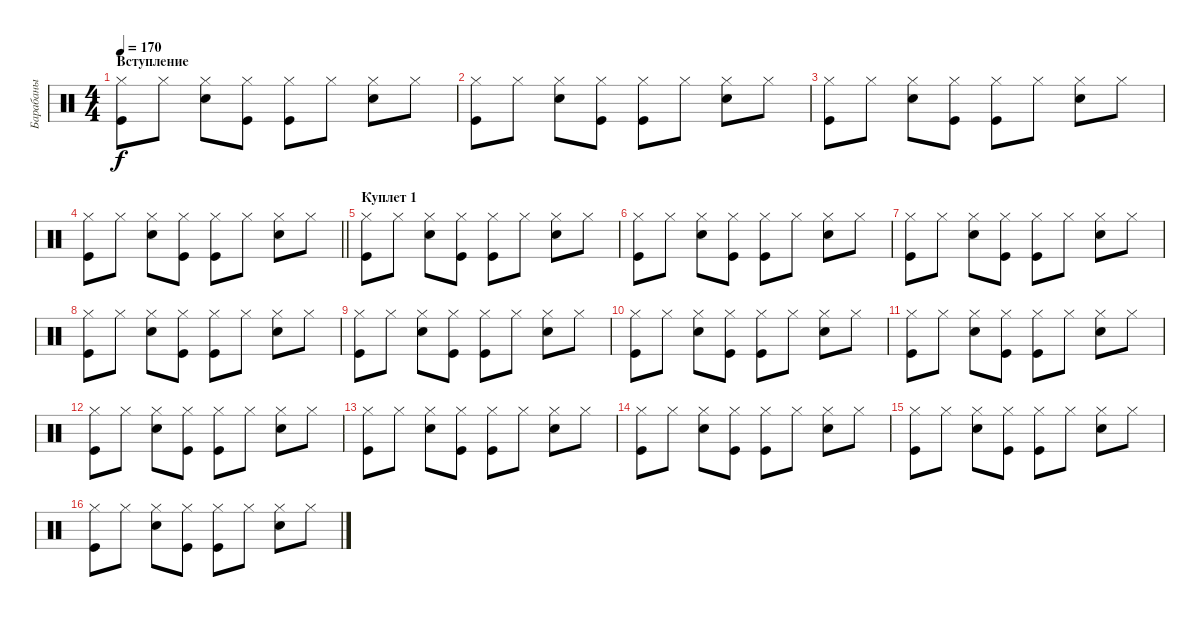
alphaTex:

\track ("Барабаны" "Барабаны") {instrument percussion}
\staff {score}
\articulation defaults
\ts (4 4)
\section ("" "Вступление")
\tempo 170
\clef neutral
\ks c
("Kick (hit)" "Hi-Hat (closed)").8{dy f} "Hi-Hat (closed)".8 ("Snare (hit) 2" "Hi-Hat (closed)").8 ("Kick (hit)" "Hi-Hat (closed)").8 ("Kick (hit)" "Hi-Hat (closed)").8 "Hi-Hat (closed)".8 ("Snare (hit) 2" "Hi-Hat (closed)").8 "Hi-Hat (closed)".8 |
("Kick (hit)" "Hi-Hat (closed)").8 "Hi-Hat (closed)".8 ("Snare (hit) 2" "Hi-Hat (closed)").8 ("Kick (hit)" "Hi-Hat (closed)").8 ("Kick (hit)" "Hi-Hat (closed)").8 "Hi-Hat (closed)".8 ("Snare (hit) 2" "Hi-Hat (closed)").8 "Hi-Hat (closed)".8 |
("Kick (hit)" "Hi-Hat (closed)").8 "Hi-Hat (closed)".8 ("Snare (hit) 2" "Hi-Hat (closed)").8 ("Kick (hit)" "Hi-Hat (closed)").8 ("Kick (hit)" "Hi-Hat (closed)").8 "Hi-Hat (closed)".8 ("Snare (hit) 2" "Hi-Hat (closed)").8 "Hi-Hat (closed)".8 |
\barLineRight lightlight
("Kick (hit)" "Hi-Hat (closed)").8 "Hi-Hat (closed)".8 ("Snare (hit) 2" "Hi-Hat (closed)").8 ("Kick (hit)" "Hi-Hat (closed)").8 ("Kick (hit)" "Hi-Hat (closed)").8 "Hi-Hat (closed)".8 ("Snare (hit) 2" "Hi-Hat (closed)").8 "Hi-Hat (closed)".8 |
\section ("" "Куплет 1")
("Kick (hit)" "Hi-Hat (closed)").8 "Hi-Hat (closed)".8 ("Snare (hit) 2" "Hi-Hat (closed)").8 ("Kick (hit)" "Hi-Hat (closed)").8 ("Kick (hit)" "Hi-Hat (closed)").8 "Hi-Hat (closed)".8 ("Snare (hit) 2" "Hi-Hat (closed)").8 "Hi-Hat (closed)".8 |
("Kick (hit)" "Hi-Hat (closed)").8 "Hi-Hat (closed)".8 ("Snare (hit) 2" "Hi-Hat (closed)").8 ("Kick (hit)" "Hi-Hat (closed)").8 ("Kick (hit)" "Hi-Hat (closed)").8 "Hi-Hat (closed)".8 ("Snare (hit) 2" "Hi-Hat (closed)").8 "Hi-Hat (closed)".8 |
("Kick (hit)" "Hi-Hat (closed)").8 "Hi-Hat (closed)".8 ("Snare (hit) 2" "Hi-Hat (closed)").8 ("Kick (hit)" "Hi-Hat (closed)").8 ("Kick (hit)" "Hi-Hat (closed)").8 "Hi-Hat (closed)".8 ("Snare (hit) 2" "Hi-Hat (closed)").8 "Hi-Hat (closed)".8 |
("Kick (hit)" "Hi-Hat (closed)").8 "Hi-Hat (closed)".8 ("Snare (hit) 2" "Hi-Hat (closed)").8 ("Kick (hit)" "Hi-Hat (closed)").8 ("Kick (hit)" "Hi-Hat (closed)").8 "Hi-Hat (closed)".8 ("Snare (hit) 2" "Hi-Hat (closed)").8 "Hi-Hat (closed)".8 |
("Kick (hit)" "Hi-Hat (closed)").8 "Hi-Hat (closed)".8 ("Snare (hit) 2" "Hi-Hat (closed)").8 ("Kick (hit)" "Hi-Hat (closed)").8 ("Kick (hit)" "Hi-Hat (closed)").8 "Hi-Hat (closed)".8 ("Snare (hit) 2" "Hi-Hat (closed)").8 "Hi-Hat (closed)".8 |
("Kick (hit)" "Hi-Hat (closed)").8 "Hi-Hat (closed)".8 ("Snare (hit) 2" "Hi-Hat (closed)").8 ("Kick (hit)" "Hi-Hat (closed)").8 ("Kick (hit)" "Hi-Hat (closed)").8 "Hi-Hat (closed)".8 ("Snare (hit) 2" "Hi-Hat (closed)").8 "Hi-Hat (closed)".8 |
("Kick (hit)" "Hi-Hat (closed)").8 "Hi-Hat (closed)".8 ("Snare (hit) 2" "Hi-Hat (closed)").8 ("Kick (hit)" "Hi-Hat (closed)").8 ("Kick (hit)" "Hi-Hat (closed)").8 "Hi-Hat (closed)".8 ("Snare (hit) 2" "Hi-Hat (closed)").8 "Hi-Hat (closed)".8 |
("Kick (hit)" "Hi-Hat (closed)").8 "Hi-Hat (closed)".8 ("Snare (hit) 2" "Hi-Hat (closed)").8 ("Kick (hit)" "Hi-Hat (closed)").8 ("Kick (hit)" "Hi-Hat (closed)").8 "Hi-Hat (closed)".8 ("Snare (hit) 2" "Hi-Hat (closed)").8 "Hi-Hat (closed)".8 |
("Kick (hit)" "Hi-Hat (closed)").8 "Hi-Hat (closed)".8 ("Snare (hit) 2" "Hi-Hat (closed)").8 ("Kick (hit)" "Hi-Hat (closed)").8 ("Kick (hit)" "Hi-Hat (closed)").8 "Hi-Hat (closed)".8 ("Snare (hit) 2" "Hi-Hat (closed)").8 "Hi-Hat (closed)".8 |
("Kick (hit)" "Hi-Hat (closed)").8 "Hi-Hat (closed)".8 ("Snare (hit) 2" "Hi-Hat (closed)").8 ("Kick (hit)" "Hi-Hat (closed)").8 ("Kick (hit)" "Hi-Hat (closed)").8 "Hi-Hat (closed)".8 ("Snare (hit) 2" "Hi-Hat (closed)").8 "Hi-Hat (closed)".8 |
("Kick (hit)" "Hi-Hat (closed)").8 "Hi-Hat (closed)".8 ("Snare (hit) 2" "Hi-Hat (closed)").8 ("Kick (hit)" "Hi-Hat (closed)").8 ("Kick (hit)" "Hi-Hat (closed)").8 "Hi-Hat (closed)".8 ("Snare (hit) 2" "Hi-Hat (closed)").8 "Hi-Hat (closed)".8 |
("Kick (hit)" "Hi-Hat (closed)").8 "Hi-Hat (closed)".8 ("Snare (hit) 2" "Hi-Hat (closed)").8 ("Kick (hit)" "Hi-Hat (closed)").8 ("Kick (hit)" "Hi-Hat (closed)").8 "Hi-Hat (closed)".8 ("Snare (hit) 2" "Hi-Hat (closed)").8 "Hi-Hat (closed)".8
